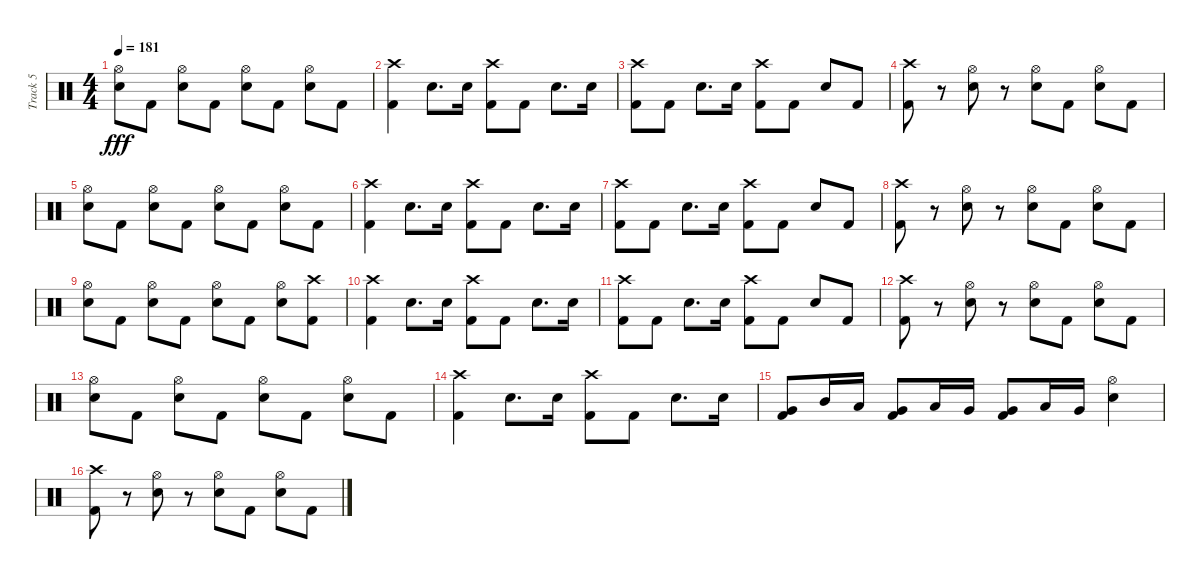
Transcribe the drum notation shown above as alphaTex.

\track ("Track 5" "Track 5") {instrument percussion}
\staff {score}
\articulation defaults
\ts (4 4)
\tempo 181
\clef neutral
\ks c
("Electric Snare (hit)" "Hi-Hat (open)").8{dy fff} "Kick (hit) 2".8 ("Electric Snare (hit)" "Hi-Hat (open)").8 "Kick (hit) 2".8 ("Electric Snare (hit)" "Hi-Hat (open)").8 "Kick (hit) 2".8 ("Electric Snare (hit)" "Hi-Hat (open)").8 "Kick (hit) 2".8 |
("Kick (hit) 2" "Crash high (hit)").4 "Electric Snare (hit)".8{d} "Electric Snare (hit)".16 ("Kick (hit) 2" "Crash high (hit)").8 "Kick (hit) 2".8 "Electric Snare (hit)".8{d} "Electric Snare (hit)".16 |
("Kick (hit) 2" "Crash high (hit)").8 "Kick (hit) 2".8 "Electric Snare (hit)".8{d} "Electric Snare (hit)".16 ("Kick (hit) 2" "Crash high (hit)").8 "Kick (hit) 2".8 "Electric Snare (hit)".8 "Kick (hit) 2".8 |
("Crash high (hit)" "Kick (hit) 2").8 r.8 ("Electric Snare (hit)" "Hi-Hat (open)").8 r.8 ("Electric Snare (hit)" "Hi-Hat (open)").8 "Kick (hit) 2".8 ("Electric Snare (hit)" "Hi-Hat (open)").8 "Kick (hit) 2".8 |
("Electric Snare (hit)" "Hi-Hat (open)").8 "Kick (hit) 2".8 ("Electric Snare (hit)" "Hi-Hat (open)").8 "Kick (hit) 2".8 ("Electric Snare (hit)" "Hi-Hat (open)").8 "Kick (hit) 2".8 ("Electric Snare (hit)" "Hi-Hat (open)").8 "Kick (hit) 2".8 |
("Kick (hit) 2" "Crash high (hit)").4 "Electric Snare (hit)".8{d} "Electric Snare (hit)".16 ("Kick (hit) 2" "Crash high (hit)").8 "Kick (hit) 2".8 "Electric Snare (hit)".8{d} "Electric Snare (hit)".16 |
("Kick (hit) 2" "Crash high (hit)").8 "Kick (hit) 2".8 "Electric Snare (hit)".8{d} "Electric Snare (hit)".16 ("Kick (hit) 2" "Crash high (hit)").8 "Kick (hit) 2".8 "Electric Snare (hit)".8 "Kick (hit) 2".8 |
("Crash high (hit)" "Kick (hit) 2").8 r.8 ("Electric Snare (hit)" "Hi-Hat (open)").8 r.8 ("Electric Snare (hit)" "Hi-Hat (open)").8 "Kick (hit) 2".8 ("Electric Snare (hit)" "Hi-Hat (open)").8 "Kick (hit) 2".8 |
("Electric Snare (hit)" "Hi-Hat (open)").8 "Kick (hit) 2".8 ("Electric Snare (hit)" "Hi-Hat (open)").8 "Kick (hit) 2".8 ("Electric Snare (hit)" "Hi-Hat (open)").8 "Kick (hit) 2".8 ("Electric Snare (hit)" "Hi-Hat (open)").8 ("Kick (hit) 2" "Crash high (hit)").8 |
("Kick (hit) 2" "Crash high (hit)").4 "Electric Snare (hit)".8{d} "Electric Snare (hit)".16 ("Kick (hit) 2" "Crash high (hit)").8 "Kick (hit) 2".8 "Electric Snare (hit)".8{d} "Electric Snare (hit)".16 |
("Kick (hit) 2" "Crash high (hit)").8 "Kick (hit) 2".8 "Electric Snare (hit)".8{d} "Electric Snare (hit)".16 ("Kick (hit) 2" "Crash high (hit)").8 "Kick (hit) 2".8 "Electric Snare (hit)".8 "Kick (hit) 2".8 |
("Crash high (hit)" "Kick (hit) 2").8 r.8 ("Electric Snare (hit)" "Hi-Hat (open)").8 r.8 ("Electric Snare (hit)" "Hi-Hat (open)").8 "Kick (hit) 2".8 ("Electric Snare (hit)" "Hi-Hat (open)").8 "Kick (hit) 2".8 |
("Electric Snare (hit)" "Hi-Hat (open)").8 "Kick (hit) 2".8 ("Electric Snare (hit)" "Hi-Hat (open)").8 "Kick (hit) 2".8 ("Electric Snare (hit)" "Hi-Hat (open)").8 "Kick (hit) 2".8 ("Electric Snare (hit)" "Hi-Hat (open)").8 "Kick (hit) 2".8 |
("Kick (hit) 2" "Crash high (hit)").4 "Electric Snare (hit)".8{d} "Electric Snare (hit)".16 ("Kick (hit) 2" "Crash high (hit)").8 "Kick (hit) 2".8 "Electric Snare (hit)".8{d} "Electric Snare (hit)".16 |
("Kick (hit) 2" "Very Low Tom (hit)").8 "Mid Tom (hit)".16 "Low Tom (hit)".16 ("Kick (hit) 2" "Very Low Tom (hit)").8 "Low Tom (hit)".16 "Very Low Tom (hit)".16 ("Kick (hit) 2" "Very Low Tom (hit)").8 "Low Tom (hit)".16 "Very Low Tom (hit)".16 ("Electric Snare (hit)" "Hi-Hat (open)").4 |
("Crash high (hit)" "Kick (hit) 2").8 r.8 ("Electric Snare (hit)" "Hi-Hat (open)").8 r.8 ("Electric Snare (hit)" "Hi-Hat (open)").8 "Kick (hit) 2".8 ("Electric Snare (hit)" "Hi-Hat (open)").8 "Kick (hit) 2".8
